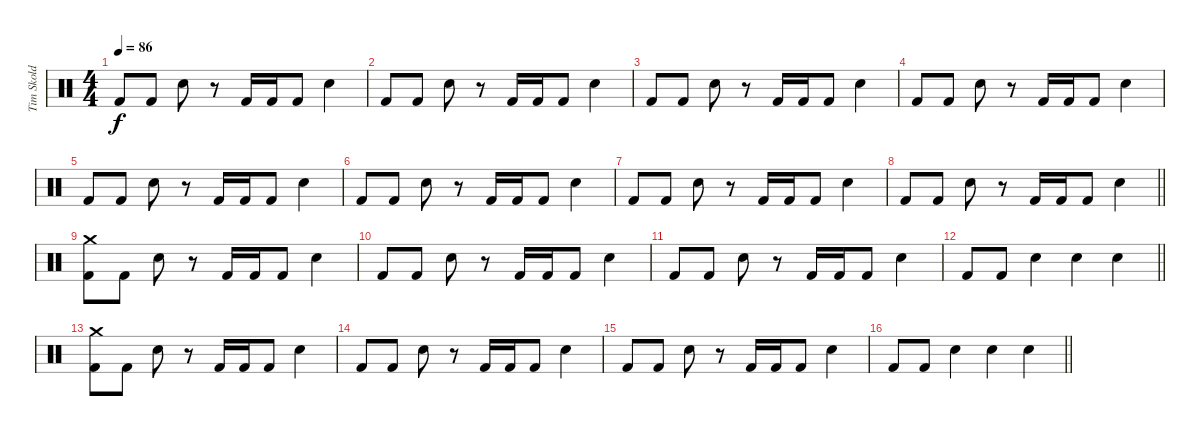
\track ("Tim Skold V" "Tim Skold ") {instrument percussion}
\staff {score}
\articulation defaults
\ts (4 4)
\tempo 86
\clef neutral
\ks c "Kick (hit) 2".8{dy f} "Kick (hit) 2".8 "Electric Snare (hit)".8
r.8 "Kick (hit) 2".16 "Kick (hit) 2".16 "Kick (hit) 2".8 "Electric Snare (hit)".4 |
"Kick (hit) 2".8 "Kick (hit) 2".8 "Electric Snare (hit)".8 r.8 "Kick (hit) 2".16 "Kick (hit) 2".16 "Kick (hit) 2".8 "Electric Snare (hit)".4 |
"Kick (hit) 2".8 "Kick (hit) 2".8 "Electric Snare (hit)".8 r.8 "Kick (hit) 2".16 "Kick (hit) 2".16 "Kick (hit) 2".8 "Electric Snare (hit)".4 |
"Kick (hit) 2".8 "Kick (hit) 2".8 "Electric Snare (hit)".8 r.8 "Kick (hit) 2".16 "Kick (hit) 2".16 "Kick (hit) 2".8 "Electric Snare (hit)".4 |
"Kick (hit) 2".8 "Kick (hit) 2".8 "Electric Snare (hit)".8 r.8 "Kick (hit) 2".16 "Kick (hit) 2".16 "Kick (hit) 2".8 "Electric Snare (hit)".4 |
"Kick (hit) 2".8 "Kick (hit) 2".8 "Electric Snare (hit)".8 r.8 "Kick (hit) 2".16 "Kick (hit) 2".16 "Kick (hit) 2".8 "Electric Snare (hit)".4 |
"Kick (hit) 2".8 "Kick (hit) 2".8 "Electric Snare (hit)".8 r.8 "Kick (hit) 2".16 "Kick (hit) 2".16 "Kick (hit) 2".8 "Electric Snare (hit)".4 |
\barLineRight lightlight "Kick (hit) 2".8 "Kick (hit) 2".8 "Electric Snare (hit)".8
r.8 "Kick (hit) 2".16 "Kick (hit) 2".16 "Kick (hit) 2".8 "Electric Snare (hit)".4 |
("Crash medium (hit)" "Kick (hit) 2").8 "Kick (hit) 2".8 "Electric Snare (hit)".8 r.8 "Kick (hit) 2".16 "Kick (hit) 2".16 "Kick (hit) 2".8 "Electric Snare (hit)".4 |
"Kick (hit) 2".8 "Kick (hit) 2".8 "Electric Snare (hit)".8 r.8 "Kick (hit) 2".16 "Kick (hit) 2".16 "Kick (hit) 2".8 "Electric Snare (hit)".4 |
"Kick (hit) 2".8 "Kick (hit) 2".8 "Electric Snare (hit)".8 r.8 "Kick (hit) 2".16 "Kick (hit) 2".16 "Kick (hit) 2".8 "Electric Snare (hit)".4 |
\barLineRight lightlight "Kick (hit) 2".8 "Kick (hit) 2".8 "Electric Snare (hit)".4 "Electric Snare (hit)".4 "Electric Snare (hit)".4
|
("Crash medium (hit)" "Kick (hit) 2").8 "Kick (hit) 2".8 "Electric Snare (hit)".8 r.8 "Kick (hit) 2".16 "Kick (hit) 2".16 "Kick (hit) 2".8 "Electric Snare (hit)".4 |
"Kick (hit) 2".8 "Kick (hit) 2".8 "Electric Snare (hit)".8 r.8 "Kick (hit) 2".16 "Kick (hit) 2".16 "Kick (hit) 2".8 "Electric Snare (hit)".4 |
"Kick (hit) 2".8 "Kick (hit) 2".8 "Electric Snare (hit)".8 r.8 "Kick (hit) 2".16 "Kick (hit) 2".16 "Kick (hit) 2".8 "Electric Snare (hit)".4 |
\barLineRight lightlight "Kick (hit) 2".8 "Kick (hit) 2".8 "Electric Snare (hit)".4 "Electric Snare (hit)".4 "Electric Snare (hit)".4
